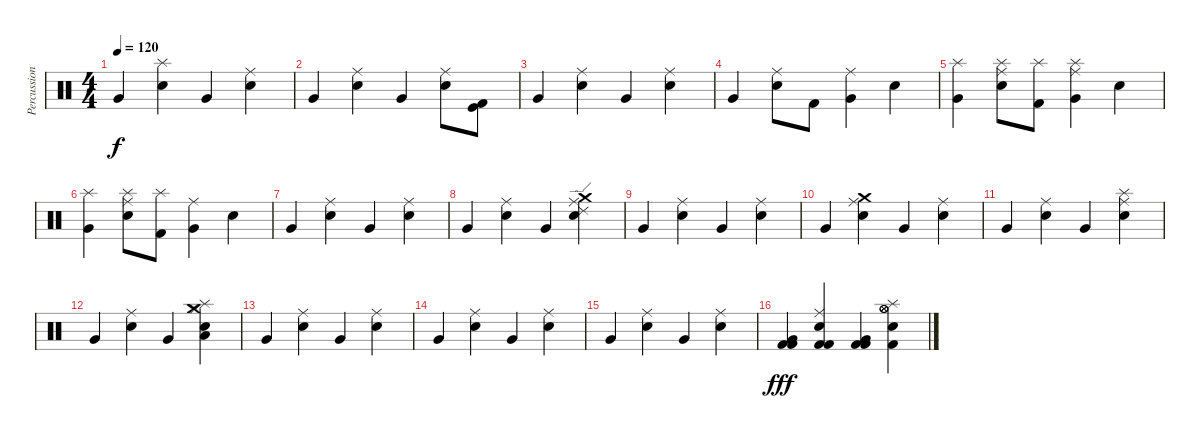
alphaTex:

\track ("Percussion" "Percussion") {instrument percussion}
\staff {score}
\articulation defaults
\ts (4 4)
\tempo 120
\clef neutral
\ks c "Very Low Tom (hit)".4{dy f}
("Splash (hit)" "Snare (hit) 2").4 "Very Low Tom (hit)".4 ("Ride (middle)" "Snare (hit) 2").4 |
"Very Low Tom (hit)".4 ("Ride (middle)" "Snare (hit) 2").4 "Very Low Tom (hit)".4 ("Ride (middle)" "Snare (hit) 2").8 ("Kick (hit)" "Kick (hit) 2").8 |
"Very Low Tom (hit)".4 ("Ride (middle)" "Snare (hit) 2").4 "Very Low Tom (hit)".4 ("Ride (middle)" "Snare (hit) 2").4 |
"Very Low Tom (hit)".4 ("Ride (middle)" "Snare (hit) 2").8 "Kick (hit) 2".8 ("Ride (middle)" "Very Low Tom (hit)").4 "Snare (hit) 2".4 |
("Splash (hit)" "Very Low Tom (hit)").4 ("Splash (hit)" "Ride (middle)" "Snare (hit) 2").8 ("Splash (hit)" "Kick (hit) 2").8 ("Splash (hit)" "Ride (middle)" "Very Low Tom (hit)").4 "Snare (hit) 2".4 |
("Splash (hit)" "Very Low Tom (hit)").4 ("Splash (hit)" "Ride (middle)" "Snare (hit) 2").8 ("Splash (hit)" "Kick (hit) 2").8 ("Ride (middle)" "Very Low Tom (hit)").4 "Snare (hit) 2".4 |
"Very Low Tom (hit)".4 ("Ride (middle)" "Snare (hit) 2").4 "Very Low Tom (hit)".4 ("Ride (middle)" "Snare (hit) 2").4 |
"Very Low Tom (hit)".4 ("Ride (middle)" "Snare (hit) 2").4 "Very Low Tom (hit)".4 ("Crash medium (hit)" "Ride (middle)" "Ride (edge) 2" "Snare (hit) 2").4 |
"Very Low Tom (hit)".4 ("Ride (middle)" "Snare (hit) 2").4 "Very Low Tom (hit)".4 ("Ride (middle)" "Snare (hit) 2").4 |
"Very Low Tom (hit)".4 ("Crash medium (hit)" "Ride (middle)" "Snare (hit) 2").4 "Very Low Tom (hit)".4 ("Ride (middle)" "Snare (hit) 2").4 |
"Very Low Tom (hit)".4 ("Ride (middle)" "Snare (hit) 2").4 "Very Low Tom (hit)".4 ("Splash (hit)" "Ride (middle)" "Snare (hit) 2").4 |
"Very Low Tom (hit)".4 ("Ride (middle)" "Snare (hit) 2").4 "Very Low Tom (hit)".4 ("Hi-Hat (closed)" "Low Floor Tom (hit)" "Crash medium (hit)" "Splash (hit)" "Snare (hit) 2").4 |
"Very Low Tom (hit)".4 ("Ride (middle)" "Snare (hit) 2").4 "Very Low Tom (hit)".4 ("Ride (middle)" "Snare (hit) 2").4 |
"Very Low Tom (hit)".4 ("Ride (middle)" "Snare (hit) 2").4 "Very Low Tom (hit)".4 ("Ride (middle)" "Snare (hit) 2").4 |
"Very Low Tom (hit)".4 ("Ride (middle)" "Snare (hit) 2").4 "Very Low Tom (hit)".4 ("Ride (middle)" "Snare (hit) 2").4 |
("Kick (hit) 2" "Very Low Tom (hit)" "Kick (hit) 2").4{dy fff} ("Ride (middle)" "Kick (hit) 2" "Snare (hit) 2" "Kick (hit) 2").4 ("Kick (hit) 2" "Very Low Tom (hit)" "Kick (hit) 2").4 ("Splash (hit)" "Hi-Hat (open)" "Hi-Hat (open)" "Hi-Hat (open)" "Snare (hit) 2" "Kick (hit) 2").4
